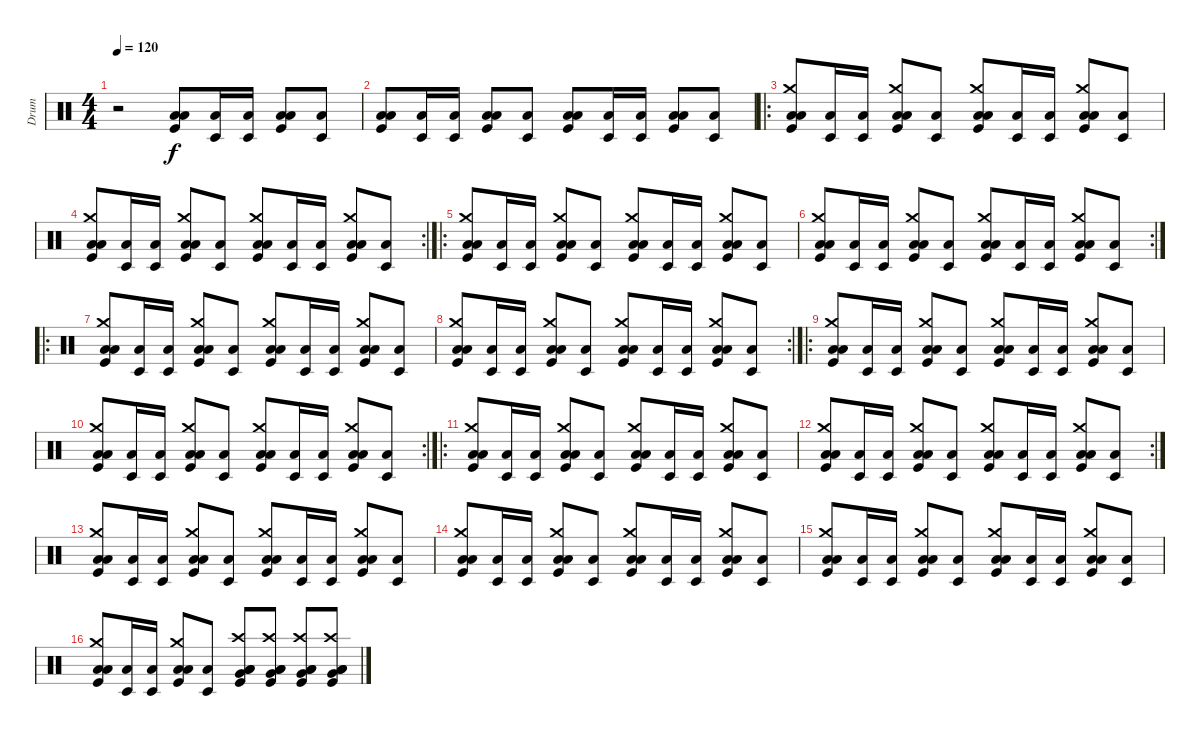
\track ("Drum" "Drum") {instrument percussion}
\staff {score}
\articulation defaults
\ts (4 4)
\tempo 120
\clef neutral
\ks c
r.2{dy f} ("Kick (hit)" "Low Tom (hit)" "Low Floor Tom (hit)").8 ("Timbale low (hit)" "Low Tom (hit)").16 ("Timbale low (hit)" "Low Tom (hit)").16 ("Kick (hit)" "Low Tom (hit)" "Low Floor Tom (hit)").8 ("Timbale low (hit)" "Low Tom (hit)").8 |
("Kick (hit)" "Low Tom (hit)" "Low Floor Tom (hit)").8 ("Timbale low (hit)" "Low Tom (hit)").16 ("Timbale low (hit)" "Low Tom (hit)").16 ("Kick (hit)" "Low Tom (hit)" "Low Floor Tom (hit)").8 ("Timbale low (hit)" "Low Tom (hit)").8 ("Kick (hit)" "Low Tom (hit)" "Low Floor Tom (hit)").8 ("Timbale low (hit)" "Low Tom (hit)").16 ("Timbale low (hit)" "Low Tom (hit)").16 ("Kick (hit)" "Low Tom (hit)" "Low Floor Tom (hit)").8 ("Timbale low (hit)" "Low Tom (hit)").8 |
\ro
("Kick (hit)" "Low Tom (hit)" "Low Floor Tom (hit)" "Crash medium (hit)").8 ("Timbale low (hit)" "Low Tom (hit)").16 ("Timbale low (hit)" "Low Tom (hit)").16 ("Kick (hit)" "Low Tom (hit)" "Low Floor Tom (hit)" "Crash medium (hit)").8 ("Timbale low (hit)" "Low Tom (hit)").8 ("Kick (hit)" "Low Tom (hit)" "Low Floor Tom (hit)" "Crash medium (hit)").8 ("Timbale low (hit)" "Low Tom (hit)").16 ("Timbale low (hit)" "Low Tom (hit)").16 ("Kick (hit)" "Low Tom (hit)" "Low Floor Tom (hit)" "Crash medium (hit)").8 ("Timbale low (hit)" "Low Tom (hit)").8 |
\rc 2
("Kick (hit)" "Low Tom (hit)" "Low Floor Tom (hit)" "Crash medium (hit)").8 ("Timbale low (hit)" "Low Tom (hit)").16 ("Timbale low (hit)" "Low Tom (hit)").16 ("Kick (hit)" "Low Tom (hit)" "Low Floor Tom (hit)" "Crash medium (hit)").8 ("Timbale low (hit)" "Low Tom (hit)").8 ("Kick (hit)" "Low Tom (hit)" "Low Floor Tom (hit)" "Crash medium (hit)").8 ("Timbale low (hit)" "Low Tom (hit)").16 ("Timbale low (hit)" "Low Tom (hit)").16 ("Kick (hit)" "Low Tom (hit)" "Low Floor Tom (hit)" "Crash medium (hit)").8 ("Timbale low (hit)" "Low Tom (hit)").8 |
\ro
("Kick (hit)" "Low Tom (hit)" "Low Floor Tom (hit)" "Crash medium (hit)").8 ("Timbale low (hit)" "Low Tom (hit)").16 ("Timbale low (hit)" "Low Tom (hit)").16 ("Kick (hit)" "Low Tom (hit)" "Low Floor Tom (hit)" "Crash medium (hit)").8 ("Timbale low (hit)" "Low Tom (hit)").8 ("Kick (hit)" "Low Tom (hit)" "Low Floor Tom (hit)" "Crash medium (hit)").8 ("Timbale low (hit)" "Low Tom (hit)").16 ("Timbale low (hit)" "Low Tom (hit)").16 ("Kick (hit)" "Low Tom (hit)" "Low Floor Tom (hit)" "Crash medium (hit)").8 ("Timbale low (hit)" "Low Tom (hit)").8 |
\rc 2
("Kick (hit)" "Low Tom (hit)" "Low Floor Tom (hit)" "Crash medium (hit)").8 ("Timbale low (hit)" "Low Tom (hit)").16 ("Timbale low (hit)" "Low Tom (hit)").16 ("Kick (hit)" "Low Tom (hit)" "Low Floor Tom (hit)" "Crash medium (hit)").8 ("Timbale low (hit)" "Low Tom (hit)").8 ("Kick (hit)" "Low Tom (hit)" "Low Floor Tom (hit)" "Crash medium (hit)").8 ("Timbale low (hit)" "Low Tom (hit)").16 ("Timbale low (hit)" "Low Tom (hit)").16 ("Kick (hit)" "Low Tom (hit)" "Low Floor Tom (hit)" "Crash medium (hit)").8 ("Timbale low (hit)" "Low Tom (hit)").8 |
\ro
("Kick (hit)" "Low Tom (hit)" "Low Floor Tom (hit)" "Crash medium (hit)").8 ("Timbale low (hit)" "Low Tom (hit)").16 ("Timbale low (hit)" "Low Tom (hit)").16 ("Kick (hit)" "Low Tom (hit)" "Low Floor Tom (hit)" "Crash medium (hit)").8 ("Timbale low (hit)" "Low Tom (hit)").8 ("Kick (hit)" "Low Tom (hit)" "Low Floor Tom (hit)" "Crash medium (hit)").8 ("Timbale low (hit)" "Low Tom (hit)").16 ("Timbale low (hit)" "Low Tom (hit)").16 ("Kick (hit)" "Low Tom (hit)" "Low Floor Tom (hit)" "Crash medium (hit)").8 ("Timbale low (hit)" "Low Tom (hit)").8 |
\rc 2
("Kick (hit)" "Low Tom (hit)" "Low Floor Tom (hit)" "Crash medium (hit)").8 ("Timbale low (hit)" "Low Tom (hit)").16 ("Timbale low (hit)" "Low Tom (hit)").16 ("Kick (hit)" "Low Tom (hit)" "Low Floor Tom (hit)" "Crash medium (hit)").8 ("Timbale low (hit)" "Low Tom (hit)").8 ("Kick (hit)" "Low Tom (hit)" "Low Floor Tom (hit)" "Crash medium (hit)").8 ("Timbale low (hit)" "Low Tom (hit)").16 ("Timbale low (hit)" "Low Tom (hit)").16 ("Kick (hit)" "Low Tom (hit)" "Low Floor Tom (hit)" "Crash medium (hit)").8 ("Timbale low (hit)" "Low Tom (hit)").8 |
\ro
("Kick (hit)" "Low Tom (hit)" "Low Floor Tom (hit)" "Crash medium (hit)").8 ("Timbale low (hit)" "Low Tom (hit)").16 ("Timbale low (hit)" "Low Tom (hit)").16 ("Kick (hit)" "Low Tom (hit)" "Low Floor Tom (hit)" "Crash medium (hit)").8 ("Timbale low (hit)" "Low Tom (hit)").8 ("Kick (hit)" "Low Tom (hit)" "Low Floor Tom (hit)" "Crash medium (hit)").8 ("Timbale low (hit)" "Low Tom (hit)").16 ("Timbale low (hit)" "Low Tom (hit)").16 ("Kick (hit)" "Low Tom (hit)" "Low Floor Tom (hit)" "Crash medium (hit)").8 ("Timbale low (hit)" "Low Tom (hit)").8 |
\rc 2
("Kick (hit)" "Low Tom (hit)" "Low Floor Tom (hit)" "Crash medium (hit)").8 ("Timbale low (hit)" "Low Tom (hit)").16 ("Timbale low (hit)" "Low Tom (hit)").16 ("Kick (hit)" "Low Tom (hit)" "Low Floor Tom (hit)" "Crash medium (hit)").8 ("Timbale low (hit)" "Low Tom (hit)").8 ("Kick (hit)" "Low Tom (hit)" "Low Floor Tom (hit)" "Crash medium (hit)").8 ("Timbale low (hit)" "Low Tom (hit)").16 ("Timbale low (hit)" "Low Tom (hit)").16 ("Kick (hit)" "Low Tom (hit)" "Low Floor Tom (hit)" "Crash medium (hit)").8 ("Timbale low (hit)" "Low Tom (hit)").8 |
\ro
("Kick (hit)" "Low Tom (hit)" "Low Floor Tom (hit)" "Crash medium (hit)").8 ("Timbale low (hit)" "Low Tom (hit)").16 ("Timbale low (hit)" "Low Tom (hit)").16 ("Kick (hit)" "Low Tom (hit)" "Low Floor Tom (hit)" "Crash medium (hit)").8 ("Timbale low (hit)" "Low Tom (hit)").8 ("Kick (hit)" "Low Tom (hit)" "Low Floor Tom (hit)" "Crash medium (hit)").8 ("Timbale low (hit)" "Low Tom (hit)").16 ("Timbale low (hit)" "Low Tom (hit)").16 ("Kick (hit)" "Low Tom (hit)" "Low Floor Tom (hit)" "Crash medium (hit)").8 ("Timbale low (hit)" "Low Tom (hit)").8 |
\rc 2
("Kick (hit)" "Low Tom (hit)" "Low Floor Tom (hit)" "Crash medium (hit)").8 ("Timbale low (hit)" "Low Tom (hit)").16 ("Timbale low (hit)" "Low Tom (hit)").16 ("Kick (hit)" "Low Tom (hit)" "Low Floor Tom (hit)" "Crash medium (hit)").8 ("Timbale low (hit)" "Low Tom (hit)").8 ("Kick (hit)" "Low Tom (hit)" "Low Floor Tom (hit)" "Crash medium (hit)").8 ("Timbale low (hit)" "Low Tom (hit)").16 ("Timbale low (hit)" "Low Tom (hit)").16 ("Kick (hit)" "Low Tom (hit)" "Low Floor Tom (hit)" "Crash medium (hit)").8 ("Timbale low (hit)" "Low Tom (hit)").8 |
("Kick (hit)" "Low Tom (hit)" "Low Floor Tom (hit)" "Crash medium (hit)").8 ("Timbale low (hit)" "Low Tom (hit)").16 ("Timbale low (hit)" "Low Tom (hit)").16 ("Kick (hit)" "Low Tom (hit)" "Low Floor Tom (hit)" "Crash medium (hit)").8 ("Timbale low (hit)" "Low Tom (hit)").8 ("Kick (hit)" "Low Tom (hit)" "Low Floor Tom (hit)" "Crash medium (hit)").8 ("Timbale low (hit)" "Low Tom (hit)").16 ("Timbale low (hit)" "Low Tom (hit)").16 ("Kick (hit)" "Low Tom (hit)" "Low Floor Tom (hit)" "Crash medium (hit)").8 ("Timbale low (hit)" "Low Tom (hit)").8 |
("Kick (hit)" "Low Tom (hit)" "Low Floor Tom (hit)" "Crash medium (hit)").8 ("Timbale low (hit)" "Low Tom (hit)").16 ("Timbale low (hit)" "Low Tom (hit)").16 ("Kick (hit)" "Low Tom (hit)" "Low Floor Tom (hit)" "Crash medium (hit)").8 ("Timbale low (hit)" "Low Tom (hit)").8 ("Kick (hit)" "Low Tom (hit)" "Low Floor Tom (hit)" "Crash medium (hit)").8 ("Timbale low (hit)" "Low Tom (hit)").16 ("Timbale low (hit)" "Low Tom (hit)").16 ("Kick (hit)" "Low Tom (hit)" "Low Floor Tom (hit)" "Crash medium (hit)").8 ("Timbale low (hit)" "Low Tom (hit)").8 |
("Kick (hit)" "Low Tom (hit)" "Low Floor Tom (hit)" "Crash medium (hit)").8 ("Timbale low (hit)" "Low Tom (hit)").16 ("Timbale low (hit)" "Low Tom (hit)").16 ("Kick (hit)" "Low Tom (hit)" "Low Floor Tom (hit)" "Crash medium (hit)").8 ("Timbale low (hit)" "Low Tom (hit)").8 ("Kick (hit)" "Low Tom (hit)" "Low Floor Tom (hit)" "Crash medium (hit)").8 ("Timbale low (hit)" "Low Tom (hit)").16 ("Timbale low (hit)" "Low Tom (hit)").16 ("Kick (hit)" "Low Tom (hit)" "Low Floor Tom (hit)" "Crash medium (hit)").8 ("Timbale low (hit)" "Low Tom (hit)").8 |
("Kick (hit)" "Low Tom (hit)" "Low Floor Tom (hit)" "Crash medium (hit)").8 ("Timbale low (hit)" "Low Tom (hit)").16 ("Timbale low (hit)" "Low Tom (hit)").16 ("Kick (hit)" "Low Tom (hit)" "Low Floor Tom (hit)" "Crash medium (hit)").8 ("Timbale low (hit)" "Low Tom (hit)").8 ("Kick (hit)" "Low Tom (hit)" "Low Floor Tom (hit)" "Crash high (hit)" "Very Low Tom (hit)").8 ("Kick (hit)" "Low Tom (hit)" "Low Floor Tom (hit)" "Crash high (hit)" "Very Low Tom (hit)").8 ("Kick (hit)" "Low Tom (hit)" "Low Floor Tom (hit)" "Crash high (hit)" "Very Low Tom (hit)").8 ("Kick (hit)" "Low Tom (hit)" "Low Floor Tom (hit)" "Crash high (hit)" "Very Low Tom (hit)").8
